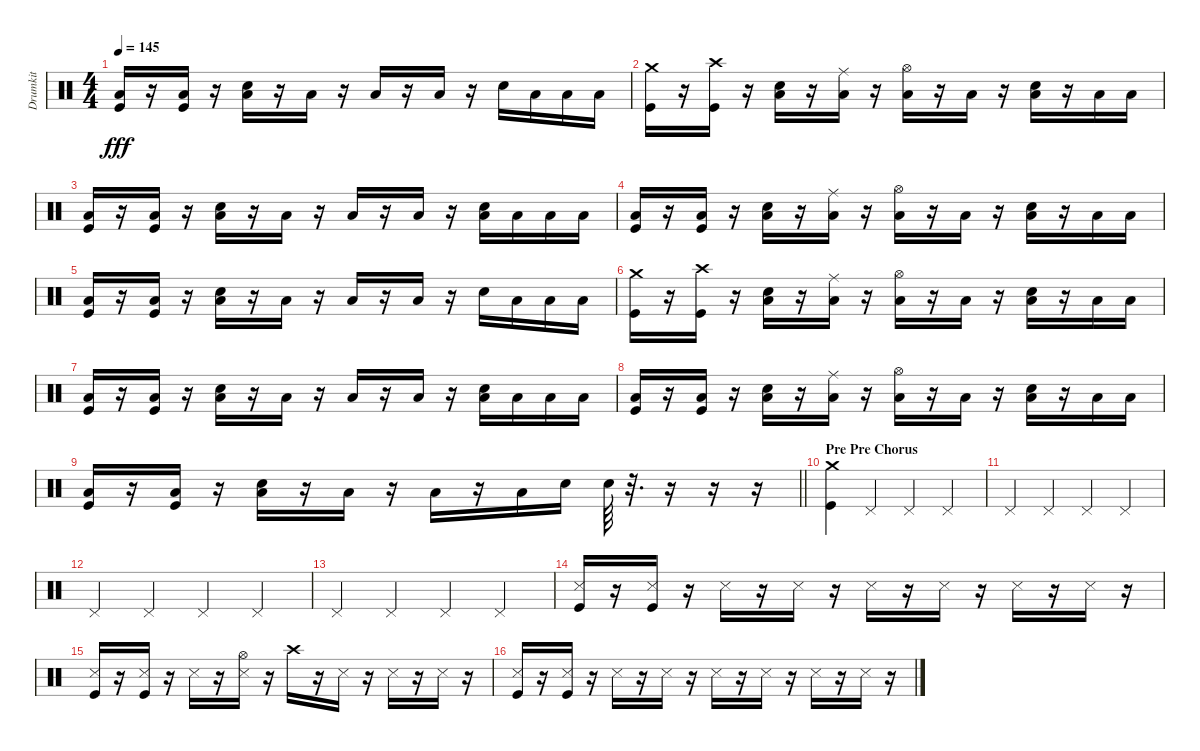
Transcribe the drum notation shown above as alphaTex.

\track ("Drumkit" "Drumkit") {instrument percussion}
\staff {score}
\articulation defaults
\ts (4 4)
\tempo 145
\clef neutral
\ks c
("Low Floor Tom (hit)" "Kick (hit)").16{dy fff} r.16 ("Low Floor Tom (hit)" "Kick (hit)").16 r.16 ("Snare (hit) 2" "Low Floor Tom (hit)").16 r.16 "Low Floor Tom (hit)".16 r.16 "Low Floor Tom (hit)".16 r.16 "Low Floor Tom (hit)".16 r.16 "Snare (hit) 2".16 "Low Tom (hit)".16 "Low Floor Tom (hit)".16 "Low Floor Tom (hit)".16 |
("Crash medium (hit)" "Kick (hit)").16 r.16 ("Crash high (hit)" "Kick (hit)").16 r.16 ("Low Floor Tom (hit)" "Snare (hit) 2").16 r.16 ("Ride (middle)" "Low Floor Tom (hit)").16 r.16 ("Hi-Hat (open)" "Low Floor Tom (hit)").16 r.16 "Low Floor Tom (hit)".16 r.16 ("Snare (hit) 2" "Low Floor Tom (hit)").16 r.16 "Low Floor Tom (hit)".16 "Low Floor Tom (hit)".16 |
("Low Floor Tom (hit)" "Kick (hit)").16 r.16 ("Low Floor Tom (hit)" "Kick (hit)").16 r.16 ("Snare (hit) 2" "Low Floor Tom (hit)").16 r.16 "Low Floor Tom (hit)".16 r.16 "Low Floor Tom (hit)".16 r.16 "Low Floor Tom (hit)".16 r.16 ("Snare (hit) 2" "Low Floor Tom (hit)").16 "Low Tom (hit)".16 "Low Floor Tom (hit)".16 "Low Floor Tom (hit)".16 |
("Low Floor Tom (hit)" "Kick (hit)").16 r.16 ("Low Floor Tom (hit)" "Kick (hit)").16 r.16 ("Snare (hit) 2" "Low Floor Tom (hit)").16 r.16 ("Ride (middle)" "Low Floor Tom (hit)").16 r.16 ("Hi-Hat (open)" "Low Floor Tom (hit)").16 r.16 "Low Floor Tom (hit)".16 r.16 ("Snare (hit) 2" "Low Floor Tom (hit)").16 r.16 "Low Floor Tom (hit)".16 "Low Floor Tom (hit)".16 |
("Low Floor Tom (hit)" "Kick (hit)").16 r.16 ("Low Floor Tom (hit)" "Kick (hit)").16 r.16 ("Snare (hit) 2" "Low Floor Tom (hit)").16 r.16 "Low Floor Tom (hit)".16 r.16 "Low Floor Tom (hit)".16 r.16 "Low Floor Tom (hit)".16 r.16 "Snare (hit) 2".16 "Low Tom (hit)".16 "Low Floor Tom (hit)".16 "Low Floor Tom (hit)".16 |
("Crash medium (hit)" "Kick (hit)").16 r.16 ("Crash high (hit)" "Kick (hit)").16 r.16 ("Low Floor Tom (hit)" "Snare (hit) 2").16 r.16 ("Ride (middle)" "Low Floor Tom (hit)").16 r.16 ("Hi-Hat (open)" "Low Floor Tom (hit)").16 r.16 "Low Floor Tom (hit)".16 r.16 ("Snare (hit) 2" "Low Floor Tom (hit)").16 r.16 "Low Floor Tom (hit)".16 "Low Floor Tom (hit)".16 |
("Low Floor Tom (hit)" "Kick (hit)").16 r.16 ("Low Floor Tom (hit)" "Kick (hit)").16 r.16 ("Snare (hit) 2" "Low Floor Tom (hit)").16 r.16 "Low Floor Tom (hit)".16 r.16 "Low Floor Tom (hit)".16 r.16 "Low Floor Tom (hit)".16 r.16 ("Snare (hit) 2" "Low Floor Tom (hit)").16 "Low Tom (hit)".16 "Low Floor Tom (hit)".16 "Low Floor Tom (hit)".16 |
("Low Floor Tom (hit)" "Kick (hit)").16 r.16 ("Low Floor Tom (hit)" "Kick (hit)").16 r.16 ("Snare (hit) 2" "Low Floor Tom (hit)").16 r.16 ("Ride (middle)" "Low Floor Tom (hit)").16 r.16 ("Hi-Hat (open)" "Low Floor Tom (hit)").16 r.16 "Low Floor Tom (hit)".16 r.16 ("Snare (hit) 2" "Low Floor Tom (hit)").16 r.16 "Low Floor Tom (hit)".16 "Low Floor Tom (hit)".16 |
\barLineRight lightlight
("Low Floor Tom (hit)" "Kick (hit)").16 r.16 ("Low Floor Tom (hit)" "Kick (hit)").16 r.16 ("Snare (hit) 2" "Low Floor Tom (hit)").16 r.16 "Low Floor Tom (hit)".16 r.16 "Low Floor Tom (hit)".16 r.16 "Low Tom (hit)".16 "Snare (hit) 2".16 "Snare (hit) 2".64 r.32{d} r.16 r.16 r.16 |
\section ("" "Pre Pre Chorus")
("Crash medium (hit)" "Kick (hit)").4 "Pedal Hi-Hat (hit)".4 "Pedal Hi-Hat (hit)".4 "Pedal Hi-Hat (hit)".4 |
"Pedal Hi-Hat (hit)".4 "Pedal Hi-Hat (hit)".4 "Pedal Hi-Hat (hit)".4 "Pedal Hi-Hat (hit)".4 |
"Pedal Hi-Hat (hit)".4 "Pedal Hi-Hat (hit)".4 "Pedal Hi-Hat (hit)".4 "Pedal Hi-Hat (hit)".4 |
"Pedal Hi-Hat (hit)".4 "Pedal Hi-Hat (hit)".4 "Pedal Hi-Hat (hit)".4 "Pedal Hi-Hat (hit)".4 |
("Snare (side stick) 3" "Kick (hit)").16 r.16 ("Snare (side stick) 3" "Kick (hit)").16 r.16 "Snare (side stick) 3".16 r.16 "Snare (side stick) 3".16 r.16 "Snare (side stick) 3".16 r.16 "Snare (side stick) 3".16 r.16 "Snare (side stick) 3".16 r.16 "Snare (side stick) 3".16 r.16 |
("Snare (side stick) 3" "Kick (hit)").16 r.16 ("Snare (side stick) 3" "Kick (hit)").16 r.16 "Snare (side stick) 3".16 r.16 ("Hi-Hat (open)" "Snare (side stick) 3").16 r.16 "Crash high (hit)".16 r.16 "Snare (side stick) 3".16 r.16 "Snare (side stick) 3".16 r.16 "Snare (side stick) 3".16 r.16 |
("Snare (side stick) 3" "Kick (hit)").16 r.16 ("Snare (side stick) 3" "Kick (hit)").16 r.16 "Snare (side stick) 3".16 r.16 "Snare (side stick) 3".16 r.16 "Snare (side stick) 3".16 r.16 "Snare (side stick) 3".16 r.16 "Snare (side stick) 3".16 r.16 "Snare (side stick) 3".16 r.16
